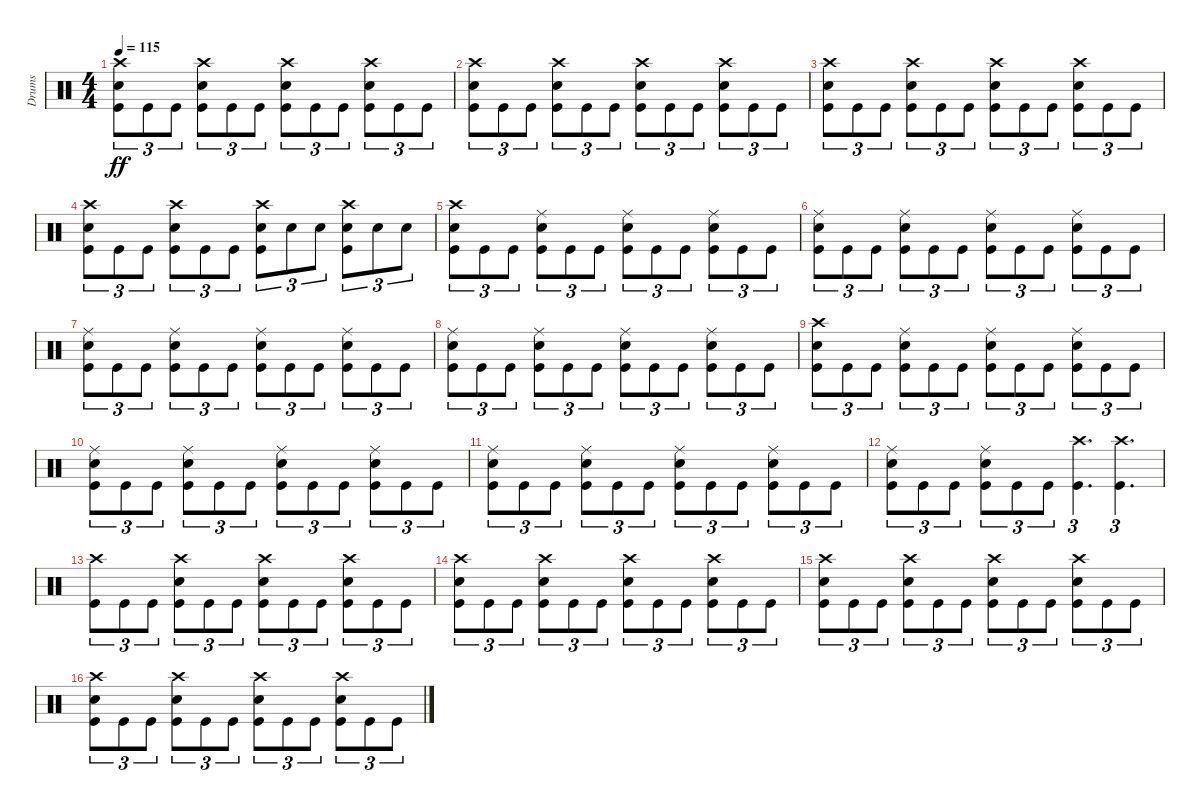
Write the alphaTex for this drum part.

\track ("Drums" "Drums") {instrument percussion}
\staff {score}
\articulation defaults
\ts (4 4)
\tempo 115
\clef neutral
\ks c
("Crash high (hit)" "Snare (hit) 2" "Kick (hit)").8{tu (3 2) dy ff} "Kick (hit)".8{tu (3 2)} "Kick (hit)".8{tu (3 2)} ("Crash high (hit)" "Snare (hit) 2" "Kick (hit)").8{tu (3 2)} "Kick (hit)".8{tu (3 2)} "Kick (hit)".8{tu (3 2)} ("Crash high (hit)" "Snare (hit) 2" "Kick (hit)").8{tu (3 2)} "Kick (hit)".8{tu (3 2)} "Kick (hit)".8{tu (3 2)} ("Crash high (hit)" "Snare (hit) 2" "Kick (hit)").8{tu (3 2)} "Kick (hit)".8{tu (3 2)} "Kick (hit)".8{tu (3 2)} |
("Crash high (hit)" "Snare (hit) 2" "Kick (hit)").8{tu (3 2)} "Kick (hit)".8{tu (3 2)} "Kick (hit)".8{tu (3 2)} ("Crash high (hit)" "Snare (hit) 2" "Kick (hit)").8{tu (3 2)} "Kick (hit)".8{tu (3 2)} "Kick (hit)".8{tu (3 2)} ("Crash high (hit)" "Snare (hit) 2" "Kick (hit)").8{tu (3 2)} "Kick (hit)".8{tu (3 2)} "Kick (hit)".8{tu (3 2)} ("Crash high (hit)" "Snare (hit) 2" "Kick (hit)").8{tu (3 2)} "Kick (hit)".8{tu (3 2)} "Kick (hit)".8{tu (3 2)} |
("Crash high (hit)" "Snare (hit) 2" "Kick (hit)").8{tu (3 2)} "Kick (hit)".8{tu (3 2)} "Kick (hit)".8{tu (3 2)} ("Crash high (hit)" "Snare (hit) 2" "Kick (hit)").8{tu (3 2)} "Kick (hit)".8{tu (3 2)} "Kick (hit)".8{tu (3 2)} ("Crash high (hit)" "Snare (hit) 2" "Kick (hit)").8{tu (3 2)} "Kick (hit)".8{tu (3 2)} "Kick (hit)".8{tu (3 2)} ("Crash high (hit)" "Snare (hit) 2" "Kick (hit)").8{tu (3 2)} "Kick (hit)".8{tu (3 2)} "Kick (hit)".8{tu (3 2)} |
("Crash high (hit)" "Snare (hit) 2" "Kick (hit)").8{tu (3 2)} "Kick (hit)".8{tu (3 2)} "Kick (hit)".8{tu (3 2)} ("Crash high (hit)" "Snare (hit) 2" "Kick (hit)").8{tu (3 2)} "Kick (hit)".8{tu (3 2)} "Kick (hit)".8{tu (3 2)} ("Crash high (hit)" "Snare (hit) 2" "Kick (hit)").8{tu (3 2)} "Snare (hit) 2".8{tu (3 2)} "Snare (hit) 2".8{tu (3 2)} ("Crash high (hit)" "Snare (hit) 2" "Kick (hit)").8{tu (3 2)} "Snare (hit) 2".8{tu (3 2)} "Snare (hit) 2".8{tu (3 2)} |
("Crash high (hit)" "Snare (hit) 2" "Kick (hit)").8{tu (3 2)} "Kick (hit)".8{tu (3 2)} "Kick (hit)".8{tu (3 2)} ("Ride (middle)" "Snare (hit) 2" "Kick (hit)").8{tu (3 2)} "Kick (hit)".8{tu (3 2)} "Kick (hit)".8{tu (3 2)} ("Ride (middle)" "Snare (hit) 2" "Kick (hit)").8{tu (3 2)} "Kick (hit)".8{tu (3 2)} "Kick (hit)".8{tu (3 2)} ("Ride (middle)" "Snare (hit) 2" "Kick (hit)").8{tu (3 2)} "Kick (hit)".8{tu (3 2)} "Kick (hit)".8{tu (3 2)} |
("Ride (middle)" "Snare (hit) 2" "Kick (hit)").8{tu (3 2)} "Kick (hit)".8{tu (3 2)} "Kick (hit)".8{tu (3 2)} ("Ride (middle)" "Snare (hit) 2" "Kick (hit)").8{tu (3 2)} "Kick (hit)".8{tu (3 2)} "Kick (hit)".8{tu (3 2)} ("Ride (middle)" "Snare (hit) 2" "Kick (hit)").8{tu (3 2)} "Kick (hit)".8{tu (3 2)} "Kick (hit)".8{tu (3 2)} ("Ride (middle)" "Snare (hit) 2" "Kick (hit)").8{tu (3 2)} "Kick (hit)".8{tu (3 2)} "Kick (hit)".8{tu (3 2)} |
("Ride (middle)" "Snare (hit) 2" "Kick (hit)").8{tu (3 2)} "Kick (hit)".8{tu (3 2)} "Kick (hit)".8{tu (3 2)} ("Ride (middle)" "Snare (hit) 2" "Kick (hit)").8{tu (3 2)} "Kick (hit)".8{tu (3 2)} "Kick (hit)".8{tu (3 2)} ("Ride (middle)" "Snare (hit) 2" "Kick (hit)").8{tu (3 2)} "Kick (hit)".8{tu (3 2)} "Kick (hit)".8{tu (3 2)} ("Ride (middle)" "Snare (hit) 2" "Kick (hit)").8{tu (3 2)} "Kick (hit)".8{tu (3 2)} "Kick (hit)".8{tu (3 2)} |
("Ride (middle)" "Snare (hit) 2" "Kick (hit)").8{tu (3 2)} "Kick (hit)".8{tu (3 2)} "Kick (hit)".8{tu (3 2)} ("Ride (middle)" "Snare (hit) 2" "Kick (hit)").8{tu (3 2)} "Kick (hit)".8{tu (3 2)} "Kick (hit)".8{tu (3 2)} ("Ride (middle)" "Snare (hit) 2" "Kick (hit)").8{tu (3 2)} "Kick (hit)".8{tu (3 2)} "Kick (hit)".8{tu (3 2)} ("Ride (middle)" "Snare (hit) 2" "Kick (hit)").8{tu (3 2)} "Kick (hit)".8{tu (3 2)} "Kick (hit)".8{tu (3 2)} |
("Crash high (hit)" "Snare (hit) 2" "Kick (hit)").8{tu (3 2)} "Kick (hit)".8{tu (3 2)} "Kick (hit)".8{tu (3 2)} ("Ride (middle)" "Snare (hit) 2" "Kick (hit)").8{tu (3 2)} "Kick (hit)".8{tu (3 2)} "Kick (hit)".8{tu (3 2)} ("Ride (middle)" "Snare (hit) 2" "Kick (hit)").8{tu (3 2)} "Kick (hit)".8{tu (3 2)} "Kick (hit)".8{tu (3 2)} ("Ride (middle)" "Snare (hit) 2" "Kick (hit)").8{tu (3 2)} "Kick (hit)".8{tu (3 2)} "Kick (hit)".8{tu (3 2)} |
("Ride (middle)" "Snare (hit) 2" "Kick (hit)").8{tu (3 2)} "Kick (hit)".8{tu (3 2)} "Kick (hit)".8{tu (3 2)} ("Ride (middle)" "Snare (hit) 2" "Kick (hit)").8{tu (3 2)} "Kick (hit)".8{tu (3 2)} "Kick (hit)".8{tu (3 2)} ("Ride (middle)" "Snare (hit) 2" "Kick (hit)").8{tu (3 2)} "Kick (hit)".8{tu (3 2)} "Kick (hit)".8{tu (3 2)} ("Ride (middle)" "Snare (hit) 2" "Kick (hit)").8{tu (3 2)} "Kick (hit)".8{tu (3 2)} "Kick (hit)".8{tu (3 2)} |
("Ride (middle)" "Snare (hit) 2" "Kick (hit)").8{tu (3 2)} "Kick (hit)".8{tu (3 2)} "Kick (hit)".8{tu (3 2)} ("Ride (middle)" "Snare (hit) 2" "Kick (hit)").8{tu (3 2)} "Kick (hit)".8{tu (3 2)} "Kick (hit)".8{tu (3 2)} ("Ride (middle)" "Snare (hit) 2" "Kick (hit)").8{tu (3 2)} "Kick (hit)".8{tu (3 2)} "Kick (hit)".8{tu (3 2)} ("Ride (middle)" "Snare (hit) 2" "Kick (hit)").8{tu (3 2)} "Kick (hit)".8{tu (3 2)} "Kick (hit)".8{tu (3 2)} |
("Ride (middle)" "Snare (hit) 2" "Kick (hit)").8{tu (3 2)} "Kick (hit)".8{tu (3 2)} "Kick (hit)".8{tu (3 2)} ("Ride (middle)" "Snare (hit) 2" "Kick (hit)").8{tu (3 2)} "Kick (hit)".8{tu (3 2)} "Kick (hit)".8{tu (3 2)} ("Crash high (hit)" "Kick (hit)").4{d tu (3 2)} ("Crash high (hit)" "Kick (hit)").4{d tu (3 2)} |
("Crash high (hit)" "Kick (hit)").8{tu (3 2)} "Kick (hit)".8{tu (3 2)} "Kick (hit)".8{tu (3 2)} ("Crash high (hit)" "Snare (hit) 2" "Kick (hit)").8{tu (3 2)} "Kick (hit)".8{tu (3 2)} "Kick (hit)".8{tu (3 2)} ("Crash high (hit)" "Snare (hit) 2" "Kick (hit)").8{tu (3 2)} "Kick (hit)".8{tu (3 2)} "Kick (hit)".8{tu (3 2)} ("Crash high (hit)" "Snare (hit) 2" "Kick (hit)").8{tu (3 2)} "Kick (hit)".8{tu (3 2)} "Kick (hit)".8{tu (3 2)} |
("Crash high (hit)" "Snare (hit) 2" "Kick (hit)").8{tu (3 2)} "Kick (hit)".8{tu (3 2)} "Kick (hit)".8{tu (3 2)} ("Crash high (hit)" "Snare (hit) 2" "Kick (hit)").8{tu (3 2)} "Kick (hit)".8{tu (3 2)} "Kick (hit)".8{tu (3 2)} ("Crash high (hit)" "Snare (hit) 2" "Kick (hit)").8{tu (3 2)} "Kick (hit)".8{tu (3 2)} "Kick (hit)".8{tu (3 2)} ("Crash high (hit)" "Snare (hit) 2" "Kick (hit)").8{tu (3 2)} "Kick (hit)".8{tu (3 2)} "Kick (hit)".8{tu (3 2)} |
("Crash high (hit)" "Snare (hit) 2" "Kick (hit)").8{tu (3 2)} "Kick (hit)".8{tu (3 2)} "Kick (hit)".8{tu (3 2)} ("Crash high (hit)" "Snare (hit) 2" "Kick (hit)").8{tu (3 2)} "Kick (hit)".8{tu (3 2)} "Kick (hit)".8{tu (3 2)} ("Crash high (hit)" "Snare (hit) 2" "Kick (hit)").8{tu (3 2)} "Kick (hit)".8{tu (3 2)} "Kick (hit)".8{tu (3 2)} ("Crash high (hit)" "Snare (hit) 2" "Kick (hit)").8{tu (3 2)} "Kick (hit)".8{tu (3 2)} "Kick (hit)".8{tu (3 2)} |
("Crash high (hit)" "Snare (hit) 2" "Kick (hit)").8{tu (3 2)} "Kick (hit)".8{tu (3 2)} "Kick (hit)".8{tu (3 2)} ("Crash high (hit)" "Snare (hit) 2" "Kick (hit)").8{tu (3 2)} "Kick (hit)".8{tu (3 2)} "Kick (hit)".8{tu (3 2)} ("Crash high (hit)" "Snare (hit) 2" "Kick (hit)").8{tu (3 2)} "Kick (hit)".8{tu (3 2)} "Kick (hit)".8{tu (3 2)} ("Crash high (hit)" "Snare (hit) 2" "Kick (hit)").8{tu (3 2)} "Kick (hit)".8{tu (3 2)} "Kick (hit)".8{tu (3 2)}
